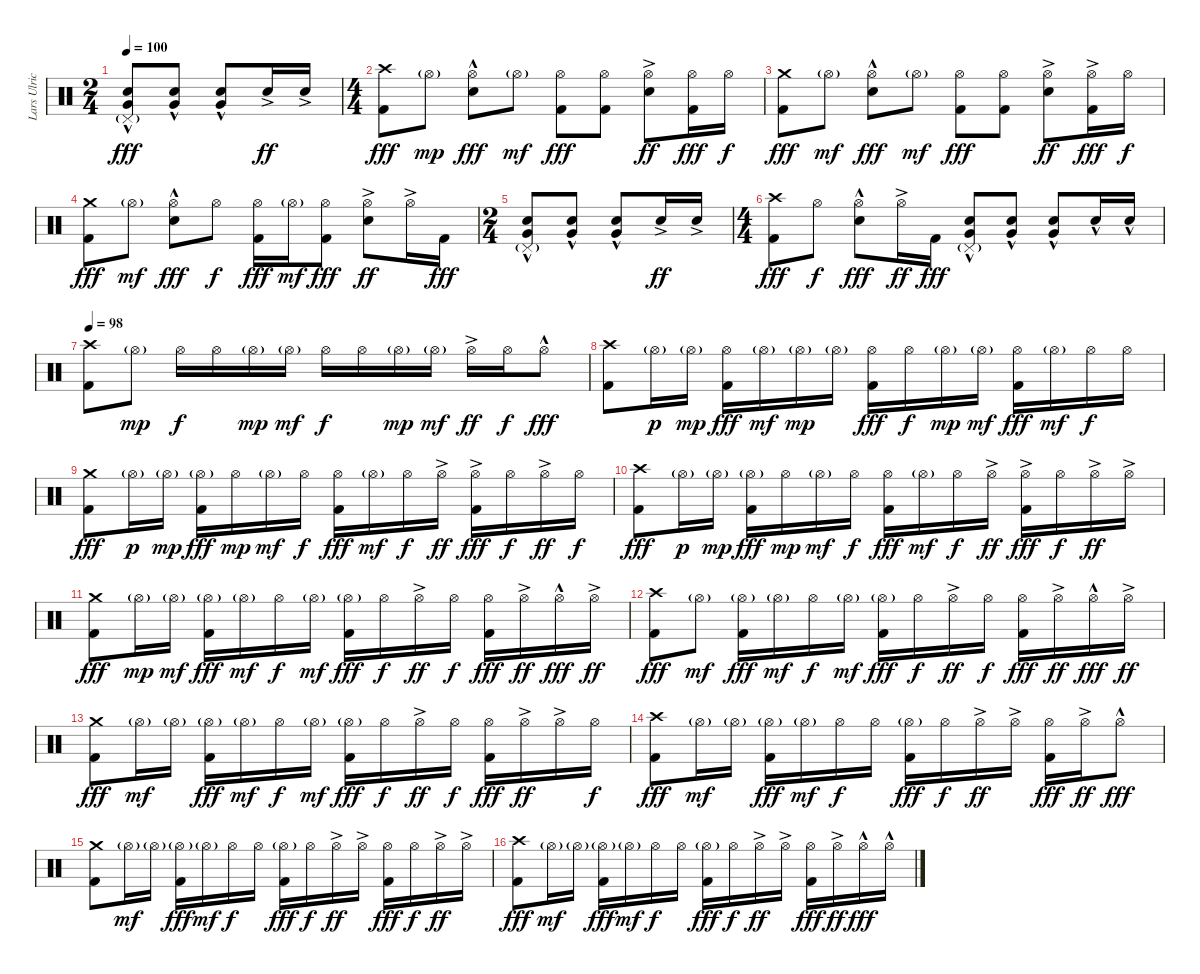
\track ("Lars Ulrich (Drums)" "Lars Ulric") {instrument percussion}
\staff {score}
\articulation defaults
\ts (2 4)
\tempo 100
\clef neutral
\ks c
("Pedal Hi-Hat (hit)"{g} "Electric Snare (hit)"{hac} "Very Low Tom (hit)"{hac}).8{dy fff} ("Electric Snare (hit)"{hac} "Very Low Tom (hit)"{hac}).8 ("Electric Snare (hit)"{hac} "Very Low Tom (hit)"{hac}).8 "Electric Snare (hit)"{ac}.16{dy ff} "Electric Snare (hit)"{ac}.16 |
\ts (4 4)
("Crash high (hit)" "Kick (hit) 2").8{dy fff} "Hi-Hat (open)"{g}.8{dy mp} ("Hi-Hat (open)"{hac} "Electric Snare (hit)"{hac}).8{dy fff} "Hi-Hat (open)"{g}.8{dy mf} ("Hi-Hat (open)" "Kick (hit) 2").8{dy fff} ("Hi-Hat (open)" "Kick (hit) 2").8 ("Hi-Hat (open)"{ac} "Electric Snare (hit)"{ac}).8{dy ff} ("Hi-Hat (open)" "Kick (hit) 2").16{dy fff} "Hi-Hat (open)".16{dy f} |
("Crash medium (hit)" "Kick (hit) 2").8{dy fff} "Hi-Hat (open)"{g}.8{dy mf} ("Hi-Hat (open)"{hac} "Electric Snare (hit)"{hac}).8{dy fff} "Hi-Hat (open)"{g}.8{dy mf} ("Hi-Hat (open)" "Kick (hit) 2").8{dy fff} ("Hi-Hat (open)" "Kick (hit) 2").8 ("Hi-Hat (open)"{ac} "Electric Snare (hit)"{ac}).8{dy ff} ("Hi-Hat (open)"{ac} "Kick (hit) 2").16{dy fff} "Hi-Hat (open)".16{dy f} |
("Crash medium (hit)" "Kick (hit) 2").8{dy fff} "Hi-Hat (open)"{g}.8{dy mf} ("Hi-Hat (open)"{hac} "Electric Snare (hit)"{hac}).8{dy fff} "Hi-Hat (open)".8{dy f} ("Hi-Hat (open)" "Kick (hit) 2").16{dy fff} "Hi-Hat (open)"{g}.16{dy mf} ("Hi-Hat (open)" "Kick (hit) 2").8{dy fff} ("Hi-Hat (open)"{ac} "Electric Snare (hit)"{ac}).8{dy ff} "Hi-Hat (open)"{ac}.16 "Kick (hit) 2".16{dy fff} |
\ts (2 4)
("Pedal Hi-Hat (hit)"{g} "Electric Snare (hit)"{hac} "Very Low Tom (hit)"{hac}).8 ("Electric Snare (hit)"{hac} "Very Low Tom (hit)"{hac}).8 ("Electric Snare (hit)"{hac} "Very Low Tom (hit)"{hac}).8 "Electric Snare (hit)"{ac}.16{dy ff} "Electric Snare (hit)"{ac}.16 |
\ts (4 4)
("Crash high (hit)" "Kick (hit) 2").8{dy fff} "Hi-Hat (open)".8{dy f} ("Hi-Hat (open)"{hac} "Electric Snare (hit)"{hac}).8{dy fff} "Hi-Hat (open)"{ac}.16{dy ff} "Kick (hit) 2".16{dy fff} ("Pedal Hi-Hat (hit)"{g} "Electric Snare (hit)"{hac} "Very Low Tom (hit)"{hac}).8 ("Electric Snare (hit)"{hac} "Very Low Tom (hit)"{hac}).8 ("Electric Snare (hit)"{hac} "Very Low Tom (hit)"{hac}).8 "Electric Snare (hit)"{hac}.16 "Electric Snare (hit)"{hac}.16 |
\tempo 98
("Crash high (hit)" "Kick (hit) 2").8 "Hi-Hat (open)"{g}.8{dy mp} "Hi-Hat (open)".16{dy f} "Hi-Hat (open)".16 "Hi-Hat (open)"{g}.16{dy mp} "Hi-Hat (open)"{g}.16{dy mf} "Hi-Hat (open)".16{dy f} "Hi-Hat (open)".16 "Hi-Hat (open)"{g}.16{dy mp} "Hi-Hat (open)"{g}.16{dy mf} "Hi-Hat (open)"{ac}.16{dy ff} "Hi-Hat (open)".16{dy f} "Hi-Hat (open)"{hac}.8{dy fff} |
("Crash high (hit)" "Kick (hit) 2").8 "Hi-Hat (open)"{g}.16{dy p} "Hi-Hat (open)"{g}.16{dy mp} ("Hi-Hat (open)" "Kick (hit) 2").16{dy fff} "Hi-Hat (open)"{g}.16{dy mf} "Hi-Hat (open)"{g}.16{dy mp} "Hi-Hat (open)"{g}.16 ("Hi-Hat (open)" "Kick (hit) 2").16{dy fff} "Hi-Hat (open)".16{dy f} "Hi-Hat (open)"{g}.16{dy mp} "Hi-Hat (open)"{g}.16{dy mf} ("Hi-Hat (open)" "Kick (hit) 2").16{dy fff} "Hi-Hat (open)"{g}.16{dy mf} "Hi-Hat (open)".16{dy f} "Hi-Hat (open)".16 |
("Crash medium (hit)" "Kick (hit) 2").8{dy fff} "Hi-Hat (open)"{g}.16{dy p} "Hi-Hat (open)"{g}.16{dy mp} ("Hi-Hat (open)"{g} "Kick (hit) 2").16{dy fff} "Hi-Hat (open)".16{dy mp} "Hi-Hat (open)"{g}.16{dy mf} "Hi-Hat (open)".16{dy f} ("Hi-Hat (open)" "Kick (hit) 2").16{dy fff} "Hi-Hat (open)"{g}.16{dy mf} "Hi-Hat (open)".16{dy f} "Hi-Hat (open)"{ac}.16{dy ff} ("Hi-Hat (open)"{ac} "Kick (hit) 2").16{dy fff} "Hi-Hat (open)".16{dy f} "Hi-Hat (open)"{ac}.16{dy ff} "Hi-Hat (open)".16{dy f} |
("Crash high (hit)" "Kick (hit) 2").8{dy fff} "Hi-Hat (open)"{g}.16{dy p} "Hi-Hat (open)"{g}.16{dy mp} ("Hi-Hat (open)"{g} "Kick (hit) 2").16{dy fff} "Hi-Hat (open)".16{dy mp} "Hi-Hat (open)"{g}.16{dy mf} "Hi-Hat (open)".16{dy f} ("Hi-Hat (open)" "Kick (hit) 2").16{dy fff} "Hi-Hat (open)"{g}.16{dy mf} "Hi-Hat (open)".16{dy f} "Hi-Hat (open)"{ac}.16{dy ff} ("Hi-Hat (open)"{ac} "Kick (hit) 2").16{dy fff} "Hi-Hat (open)".16{dy f} "Hi-Hat (open)"{ac}.16{dy ff} "Hi-Hat (open)"{ac}.16 |
("Crash medium (hit)" "Kick (hit) 2").8{dy fff} "Hi-Hat (open)"{g}.16{dy mp} "Hi-Hat (open)"{g}.16{dy mf} ("Hi-Hat (open)"{g} "Kick (hit) 2").16{dy fff} "Hi-Hat (open)"{g}.16{dy mf} "Hi-Hat (open)".16{dy f} "Hi-Hat (open)"{g}.16{dy mf} ("Hi-Hat (open)"{g} "Kick (hit) 2").16{dy fff} "Hi-Hat (open)".16{dy f} "Hi-Hat (open)"{ac}.16{dy ff} "Hi-Hat (open)".16{dy f} ("Hi-Hat (open)" "Kick (hit) 2").16{dy fff} "Hi-Hat (open)"{ac}.16{dy ff} "Hi-Hat (open)"{hac}.16{dy fff} "Hi-Hat (open)"{ac}.16{dy ff} |
("Crash high (hit)" "Kick (hit) 2").8{dy fff} "Hi-Hat (open)"{g}.8{dy mf} ("Hi-Hat (open)"{g} "Kick (hit) 2").16{dy fff} "Hi-Hat (open)"{g}.16{dy mf} "Hi-Hat (open)".16{dy f} "Hi-Hat (open)"{g}.16{dy mf} ("Hi-Hat (open)"{g} "Kick (hit) 2").16{dy fff} "Hi-Hat (open)".16{dy f} "Hi-Hat (open)"{ac}.16{dy ff} "Hi-Hat (open)".16{dy f} ("Hi-Hat (open)" "Kick (hit) 2").16{dy fff} "Hi-Hat (open)"{ac}.16{dy ff} "Hi-Hat (open)"{hac}.16{dy fff} "Hi-Hat (open)"{ac}.16{dy ff} |
("Crash medium (hit)" "Kick (hit) 2").8{dy fff} "Hi-Hat (open)"{g}.16{dy mf} "Hi-Hat (open)"{g}.16 ("Hi-Hat (open)"{g} "Kick (hit) 2").16{dy fff} "Hi-Hat (open)"{g}.16{dy mf} "Hi-Hat (open)".16{dy f} "Hi-Hat (open)"{g}.16{dy mf} ("Hi-Hat (open)"{g} "Kick (hit) 2").16{dy fff} "Hi-Hat (open)".16{dy f} "Hi-Hat (open)"{ac}.16{dy ff} "Hi-Hat (open)".16{dy f} ("Hi-Hat (open)" "Kick (hit) 2").16{dy fff} "Hi-Hat (open)"{ac}.16{dy ff} "Hi-Hat (open)"{ac}.16 "Hi-Hat (open)".16{dy f} |
("Crash high (hit)" "Kick (hit) 2").8{dy fff} "Hi-Hat (open)"{g}.16{dy mf} "Hi-Hat (open)"{g}.16 ("Hi-Hat (open)"{g} "Kick (hit) 2").16{dy fff} "Hi-Hat (open)"{g}.16{dy mf} "Hi-Hat (open)".16{dy f} "Hi-Hat (open)".16 ("Hi-Hat (open)"{g} "Kick (hit) 2").16{dy fff} "Hi-Hat (open)".16{dy f} "Hi-Hat (open)"{ac}.16{dy ff} "Hi-Hat (open)"{ac}.16 ("Hi-Hat (open)" "Kick (hit) 2").16{dy fff} "Hi-Hat (open)"{ac}.16{dy ff} "Hi-Hat (open)"{hac}.8{dy fff} |
("Crash medium (hit)" "Kick (hit) 2").8 "Hi-Hat (open)"{g}.16{dy mf} "Hi-Hat (open)"{g}.16 ("Hi-Hat (open)"{g} "Kick (hit) 2").16{dy fff} "Hi-Hat (open)"{g}.16{dy mf} "Hi-Hat (open)".16{dy f} "Hi-Hat (open)".16 ("Hi-Hat (open)"{g} "Kick (hit) 2").16{dy fff} "Hi-Hat (open)".16{dy f} "Hi-Hat (open)"{ac}.16{dy ff} "Hi-Hat (open)"{ac}.16 ("Hi-Hat (open)" "Kick (hit) 2").16{dy fff} "Hi-Hat (open)".16{dy f} "Hi-Hat (open)"{ac}.16{dy ff} "Hi-Hat (open)"{ac}.16 |
("Crash high (hit)" "Kick (hit) 2").8{dy fff} "Hi-Hat (open)"{g}.16{dy mf} "Hi-Hat (open)"{g}.16 ("Hi-Hat (open)"{g} "Kick (hit) 2").16{dy fff} "Hi-Hat (open)"{g}.16{dy mf} "Hi-Hat (open)".16{dy f} "Hi-Hat (open)".16 ("Hi-Hat (open)"{g} "Kick (hit) 2").16{dy fff} "Hi-Hat (open)".16{dy f} "Hi-Hat (open)"{ac}.16{dy ff} "Hi-Hat (open)"{ac}.16 ("Hi-Hat (open)" "Kick (hit) 2").16{dy fff} "Hi-Hat (open)"{ac}.16{dy ff} "Hi-Hat (open)"{hac}.16{dy fff} "Hi-Hat (open)"{hac}.16
